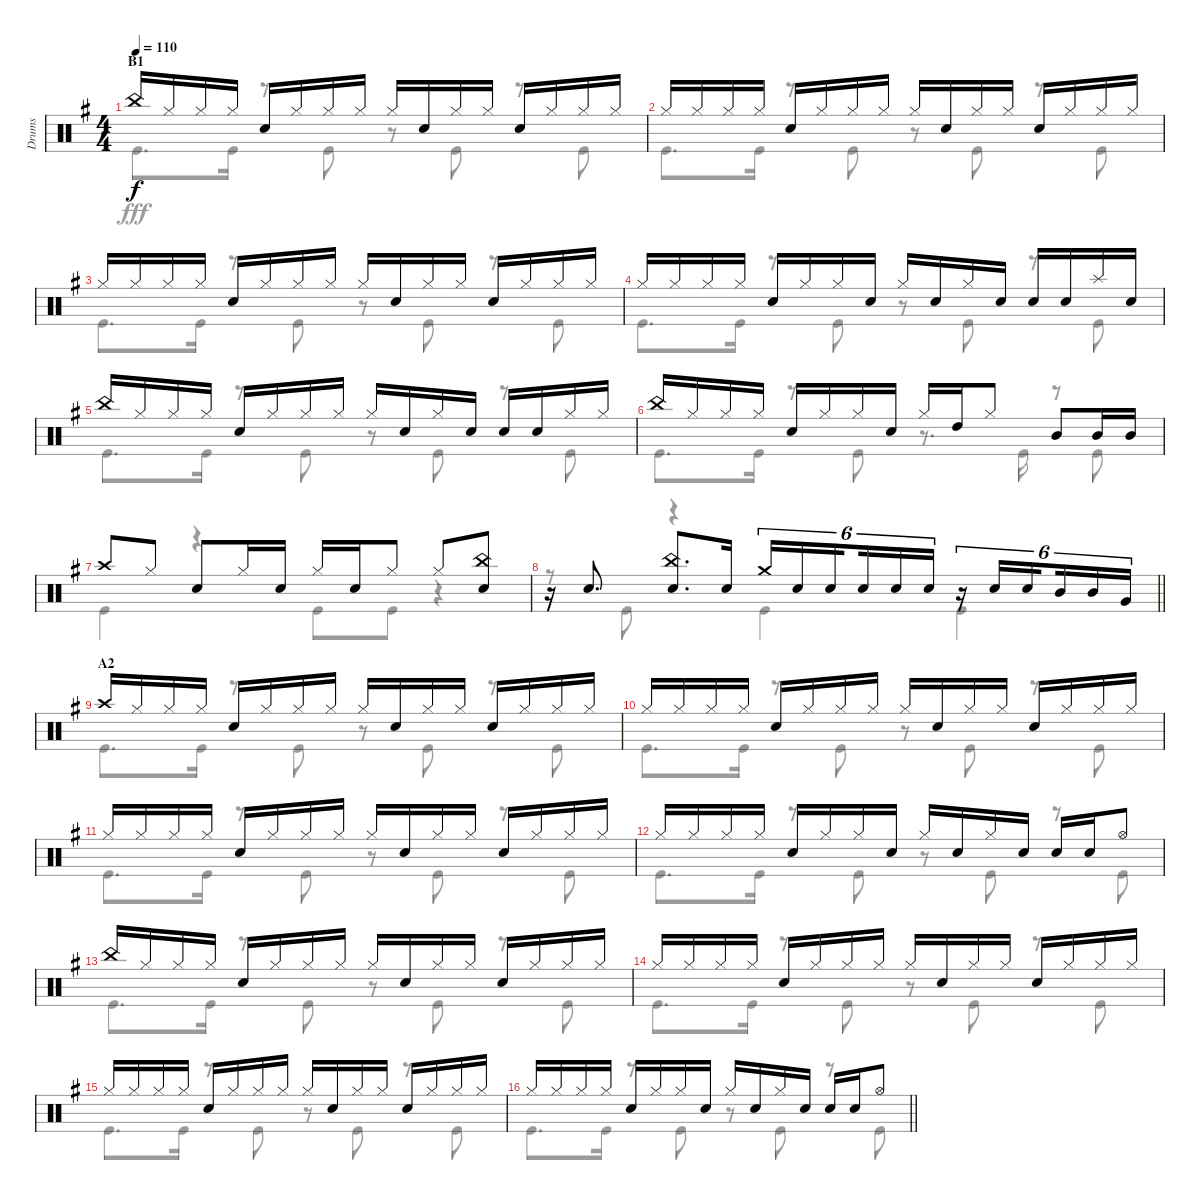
\track ("Drums" "Drums") {instrument percussion}
\staff {score}
\articulation defaults
\voice
\ts (4 4)
\section ("" "B1")
\tempo 110
\clef neutral
\ks g "China (hit)".16{dy f} "Hi-Hat (closed)".16 "Hi-Hat (closed)".16 "Hi-Hat (closed)".16 "Snare (hit) 2".16 "Hi-Hat (closed)".16 "Hi-Hat (closed)".16 "Hi-Hat (closed)".16 "Hi-Hat (closed)".16 "Snare (hit) 2".16 "Hi-Hat (closed)".16 "Hi-Hat (closed)".16 "Snare (hit) 2".16 "Hi-Hat (closed)".16 "Hi-Hat (closed)".16 "Hi-Hat (closed)".16
|
"Hi-Hat (closed)".16 "Hi-Hat (closed)".16 "Hi-Hat (closed)".16 "Hi-Hat (closed)".16 "Snare (hit) 2".16 "Hi-Hat (closed)".16 "Hi-Hat (closed)".16 "Hi-Hat (closed)".16 "Hi-Hat (closed)".16 "Snare (hit) 2".16 "Hi-Hat (closed)".16 "Hi-Hat (closed)".16 "Snare (hit) 2".16 "Hi-Hat (closed)".16 "Hi-Hat (closed)".16 "Hi-Hat (closed)".16 |
"Hi-Hat (closed)".16 "Hi-Hat (closed)".16 "Hi-Hat (closed)".16 "Hi-Hat (closed)".16 "Snare (hit) 2".16 "Hi-Hat (closed)".16 "Hi-Hat (closed)".16 "Hi-Hat (closed)".16 "Hi-Hat (closed)".16 "Snare (hit) 2".16 "Hi-Hat (closed)".16 "Hi-Hat (closed)".16 "Snare (hit) 2".16 "Hi-Hat (closed)".16 "Hi-Hat (closed)".16 "Hi-Hat (closed)".16 |
"Hi-Hat (closed)".16 "Hi-Hat (closed)".16 "Hi-Hat (closed)".16 "Hi-Hat (closed)".16 "Snare (hit) 2".16 "Hi-Hat (closed)".16 "Hi-Hat (closed)".16 "Snare (hit) 2".16 "Hi-Hat (closed)".16 "Snare (hit) 2".16 "Hi-Hat (closed)".16 "Snare (hit) 2".16 "Snare (hit) 2".16 "Snare (hit) 2".16 "Splash (hit)".16 "Snare (hit) 2".16 |
"China (hit)".16 "Hi-Hat (closed)".16 "Hi-Hat (closed)".16 "Hi-Hat (closed)".16 "Snare (hit) 2".16 "Hi-Hat (closed)".16 "Hi-Hat (closed)".16 "Hi-Hat (closed)".16 "Hi-Hat (closed)".16 "Snare (hit) 2".16 "Hi-Hat (closed)".16 "Snare (hit) 2".16 "Snare (hit) 2".16 "Snare (hit) 2".16 "Hi-Hat (closed)".16 "Hi-Hat (closed)".16 |
"China (hit)".16 "Hi-Hat (closed)".16 "Hi-Hat (closed)".16 "Hi-Hat (closed)".16 "Snare (hit) 2".16 "Hi-Hat (closed)".16 "Hi-Hat (closed)".16 "Snare (hit) 2".16 "Hi-Hat (closed)".16 "High Tom (hit)".16 "Hi-Hat (closed)".8 "Mid Tom (hit)".8 "Mid Tom (hit)".16 "Mid Tom (hit)".16 |
"Crash high (hit)".8 "Hi-Hat (closed)".8 "Snare (hit) 2".8 "Hi-Hat (closed)".16 "Snare (hit) 2".16 "Hi-Hat (closed)".16 "Snare (hit) 2".16 "Hi-Hat (closed)".8 "Hi-Hat (closed)".8 ("China (hit)" "Snare (hit) 2").8 |
\barLineRight lightlight
r.16 "Snare (hit) 2".8{d} ("China (hit)" "Snare (hit) 2").8{d} "Snare (hit) 2".16 "Crash medium (hit)".16{tu (6 4)} "Snare (hit) 2".16{tu (6 4)} "Snare (hit) 2".16{tu (6 4) beam splitsecondary} "Snare (hit) 2".16{tu (6 4)} "Snare (hit) 2".16{tu (6 4)} "Snare (hit) 2".16{tu (6 4)} r.16{tu (6 4)} "Snare (hit) 2".16{tu (6 4)} "Snare (hit) 2".16{tu (6 4) beam splitsecondary} "Mid Tom (hit)".16{tu (6 4)} "Mid Tom (hit)".16{tu (6 4)} "Very Low Tom (hit)".16{tu (6 4)} |
\section ("" "A2")
"Crash high (hit)".16 "Hi-Hat (closed)".16 "Hi-Hat (closed)".16 "Hi-Hat (closed)".16 "Snare (hit) 2".16 "Hi-Hat (closed)".16 "Hi-Hat (closed)".16 "Hi-Hat (closed)".16 "Hi-Hat (closed)".16 "Snare (hit) 2".16 "Hi-Hat (closed)".16 "Hi-Hat (closed)".16 "Snare (hit) 2".16 "Hi-Hat (closed)".16 "Hi-Hat (closed)".16 "Hi-Hat (closed)".16 |
"Hi-Hat (closed)".16 "Hi-Hat (closed)".16 "Hi-Hat (closed)".16 "Hi-Hat (closed)".16 "Snare (hit) 2".16 "Hi-Hat (closed)".16 "Hi-Hat (closed)".16 "Hi-Hat (closed)".16 "Hi-Hat (closed)".16 "Snare (hit) 2".16 "Hi-Hat (closed)".16 "Hi-Hat (closed)".16 "Snare (hit) 2".16 "Hi-Hat (closed)".16 "Hi-Hat (closed)".16 "Hi-Hat (closed)".16 |
"Hi-Hat (closed)".16 "Hi-Hat (closed)".16 "Hi-Hat (closed)".16 "Hi-Hat (closed)".16 "Snare (hit) 2".16 "Hi-Hat (closed)".16 "Hi-Hat (closed)".16 "Hi-Hat (closed)".16 "Hi-Hat (closed)".16 "Snare (hit) 2".16 "Hi-Hat (closed)".16 "Hi-Hat (closed)".16 "Snare (hit) 2".16 "Hi-Hat (closed)".16 "Hi-Hat (closed)".16 "Hi-Hat (closed)".16 |
"Hi-Hat (closed)".16 "Hi-Hat (closed)".16 "Hi-Hat (closed)".16 "Hi-Hat (closed)".16 "Snare (hit) 2".16 "Hi-Hat (closed)".16 "Hi-Hat (closed)".16 "Snare (hit) 2".16 "Hi-Hat (closed)".16 "Snare (hit) 2".16 "Hi-Hat (closed)".16 "Snare (hit) 2".16 "Snare (hit) 2".16 "Snare (hit) 2".16 "Hi-Hat (open)".8 |
"China (hit)".16 "Hi-Hat (closed)".16 "Hi-Hat (closed)".16 "Hi-Hat (closed)".16 "Snare (hit) 2".16 "Hi-Hat (closed)".16 "Hi-Hat (closed)".16 "Hi-Hat (closed)".16 "Hi-Hat (closed)".16 "Snare (hit) 2".16 "Hi-Hat (closed)".16 "Hi-Hat (closed)".16 "Snare (hit) 2".16 "Hi-Hat (closed)".16 "Hi-Hat (closed)".16 "Hi-Hat (closed)".16 |
"Hi-Hat (closed)".16 "Hi-Hat (closed)".16 "Hi-Hat (closed)".16 "Hi-Hat (closed)".16 "Snare (hit) 2".16 "Hi-Hat (closed)".16 "Hi-Hat (closed)".16 "Hi-Hat (closed)".16 "Hi-Hat (closed)".16 "Snare (hit) 2".16 "Hi-Hat (closed)".16 "Hi-Hat (closed)".16 "Snare (hit) 2".16 "Hi-Hat (closed)".16 "Hi-Hat (closed)".16 "Hi-Hat (closed)".16 |
"Hi-Hat (closed)".16 "Hi-Hat (closed)".16 "Hi-Hat (closed)".16 "Hi-Hat (closed)".16 "Snare (hit) 2".16 "Hi-Hat (closed)".16 "Hi-Hat (closed)".16 "Hi-Hat (closed)".16 "Hi-Hat (closed)".16 "Snare (hit) 2".16 "Hi-Hat (closed)".16 "Hi-Hat (closed)".16 "Snare (hit) 2".16 "Hi-Hat (closed)".16 "Hi-Hat (closed)".16 "Hi-Hat (closed)".16 |
\barLineRight lightlight "Hi-Hat (closed)".16 "Hi-Hat (closed)".16 "Hi-Hat (closed)".16 "Hi-Hat (closed)".16 "Snare (hit) 2".16 "Hi-Hat (closed)".16 "Hi-Hat (closed)".16 "Snare (hit) 2".16 "Hi-Hat (closed)".16 "Snare (hit) 2".16 "Hi-Hat (closed)".16 "Snare (hit) 2".16 "Snare (hit) 2".16 "Snare (hit) 2".16 "Hi-Hat (open)".8
\voice
\clef neutral
\ottava regular
\simile none
\ks g "Kick (hit)".8{d dy fff} "Kick (hit)".16
r.8 "Kick (hit)".8 r.8 "Kick (hit)".8 r.8 "Kick (hit)".8 |
"Kick (hit)".8{d} "Kick (hit)".16 r.8 "Kick (hit)".8 r.8 "Kick (hit)".8 r.8 "Kick (hit)".8 |
"Kick (hit)".8{d} "Kick (hit)".16 r.8 "Kick (hit)".8 r.8 "Kick (hit)".8 r.8 "Kick (hit)".8 |
"Kick (hit)".8{d} "Kick (hit)".16 r.8 "Kick (hit)".8 r.8 "Kick (hit)".8 r.8 "Kick (hit)".8 |
"Kick (hit)".8{d} "Kick (hit)".16 r.8 "Kick (hit)".8 r.8 "Kick (hit)".8 r.8 "Kick (hit)".8 |
"Kick (hit)".8{d} "Kick (hit)".16 r.8 "Kick (hit)".8 r.8{d} "Kick (hit)".16 r.8 "Kick (hit)".8 |
"Kick (hit)".4 r.4 "Kick (hit)".8 "Kick (hit)".8 r.4 |
\barLineRight lightlight
r.8 "Kick (hit)".8 r.4 "Kick (hit)".4 "Kick (hit)".4 |
"Kick (hit)".8{d} "Kick (hit)".16 r.8 "Kick (hit)".8 r.8 "Kick (hit)".8 r.8 "Kick (hit)".8 |
"Kick (hit)".8{d} "Kick (hit)".16 r.8 "Kick (hit)".8 r.8 "Kick (hit)".8 r.8 "Kick (hit)".8 |
"Kick (hit)".8{d} "Kick (hit)".16 r.8 "Kick (hit)".8 r.8 "Kick (hit)".8 r.8 "Kick (hit)".8 |
"Kick (hit)".8{d} "Kick (hit)".16 r.8 "Kick (hit)".8 r.8 "Kick (hit)".8 r.8 "Kick (hit)".8 |
"Kick (hit)".8{d} "Kick (hit)".16 r.8 "Kick (hit)".8 r.8 "Kick (hit)".8 r.8 "Kick (hit)".8 |
"Kick (hit)".8{d} "Kick (hit)".16 r.8 "Kick (hit)".8 r.8 "Kick (hit)".8 r.8 "Kick (hit)".8 |
"Kick (hit)".8{d} "Kick (hit)".16 r.8 "Kick (hit)".8 r.8 "Kick (hit)".8 r.8 "Kick (hit)".8 |
\barLineRight lightlight "Kick (hit)".8{d} "Kick (hit)".16
r.8 "Kick (hit)".8 r.8 "Kick (hit)".8 r.8 "Kick (hit)".8
